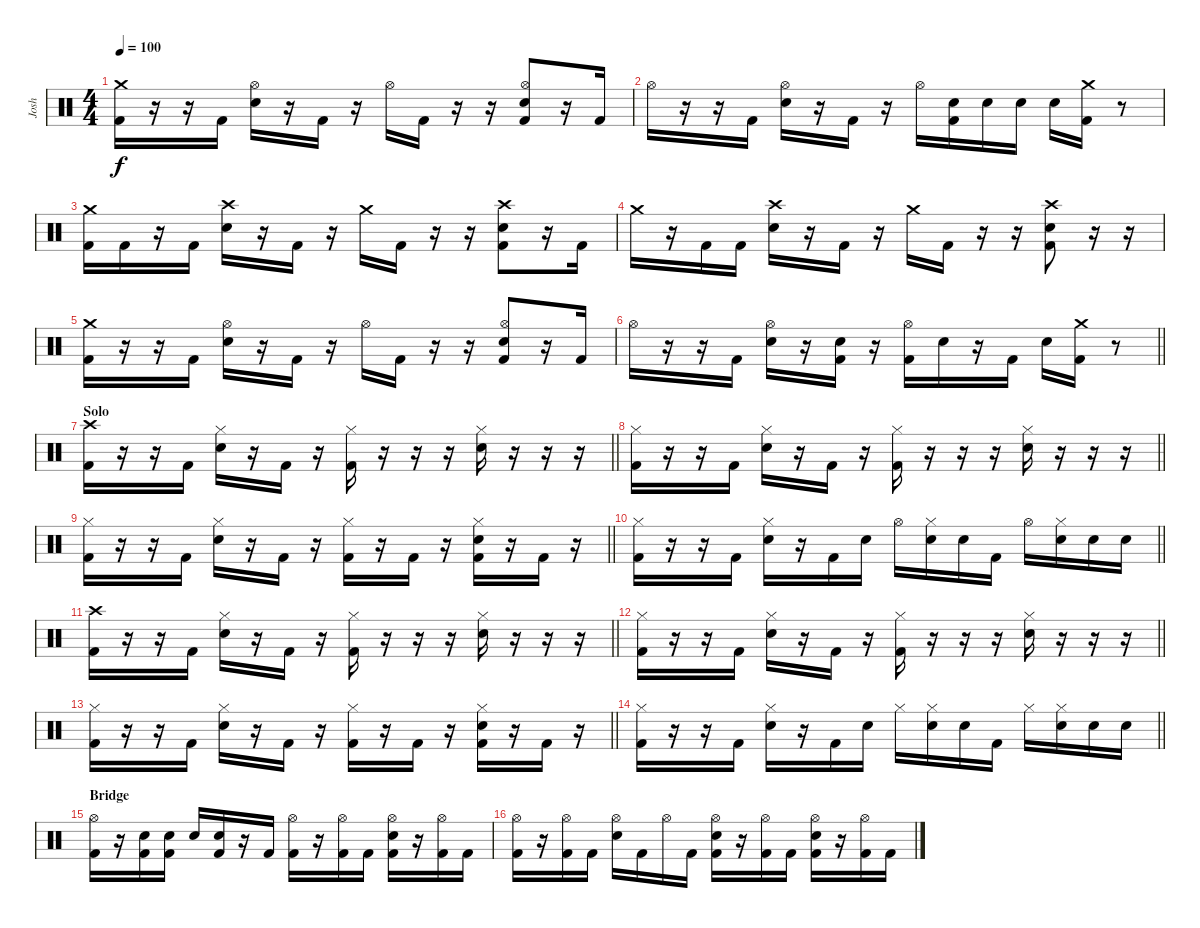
\track ("Josh" "Josh") {instrument percussion}
\staff {score}
\articulation defaults
\ts (4 4)
\tempo 100
\clef neutral
\ks c
("Crash medium (hit)" "Kick (hit) 2").16{dy f} r.16 r.16 "Kick (hit) 2".16 ("Hi-Hat (open)" "Snare (hit) 2").16 r.16 "Kick (hit) 2".16 r.16 "Hi-Hat (open)".16 "Kick (hit) 2".16 r.16 r.16 ("Hi-Hat (open)" "Snare (hit) 2" "Kick (hit) 2").8 r.16 "Kick (hit) 2".16 |
"Hi-Hat (open)".16 r.16 r.16 "Kick (hit) 2".16 ("Hi-Hat (open)" "Snare (hit) 2").16 r.16 "Kick (hit) 2".16 r.16 "Hi-Hat (open)".16 ("Snare (hit) 2" "Kick (hit) 2").16 "Snare (hit) 2".16 "Snare (hit) 2".16 "Snare (hit) 2".16 ("Crash medium (hit)" "Kick (hit) 2").16 r.8 |
("Crash medium (hit)" "Kick (hit) 2").16 "Kick (hit) 2".16 r.16 "Kick (hit) 2".16 ("Crash high (hit)" "Snare (hit) 2").16 r.16 "Kick (hit) 2".16 r.16 "Crash medium (hit)".16 "Kick (hit) 2".16 r.16 r.16 ("Crash high (hit)" "Snare (hit) 2" "Kick (hit) 2").8 r.16 "Kick (hit) 2".16 |
"Crash medium (hit)".16 r.16 "Kick (hit) 2".16 "Kick (hit) 2".16 ("Crash high (hit)" "Snare (hit) 2").16 r.16 "Kick (hit) 2".16 r.16 "Crash medium (hit)".16 "Kick (hit) 2".16 r.16 r.16 ("Crash high (hit)" "Snare (hit) 2" "Kick (hit) 2").8 r.16 r.16 |
("Crash medium (hit)" "Kick (hit) 2").16 r.16 r.16 "Kick (hit) 2".16 ("Hi-Hat (open)" "Snare (hit) 2").16 r.16 "Kick (hit) 2".16 r.16 "Hi-Hat (open)".16 "Kick (hit) 2".16 r.16 r.16 ("Hi-Hat (open)" "Snare (hit) 2" "Kick (hit) 2").8 r.16 "Kick (hit) 2".16 |
\barLineRight lightlight "Hi-Hat (open)".16
r.16 r.16 "Kick (hit) 2".16 ("Hi-Hat (open)" "Snare (hit) 2").16 r.16 ("Snare (hit) 2" "Kick (hit) 2").16 r.16 ("Hi-Hat (open)" "Kick (hit) 2").16 "Snare (hit) 2".16 r.16 "Kick (hit) 2".16 "Snare (hit) 2".16 ("Crash medium (hit)" "Kick (hit) 2").16 r.8 |
\section ("" "Solo")
\barLineRight lightlight
("Crash high (hit)" "Kick (hit) 2").16 r.16 r.16 "Kick (hit) 2".16 ("Hi-Hat (closed)" "Snare (hit) 2").16 r.16 "Kick (hit) 2".16 r.16 ("Hi-Hat (closed)" "Kick (hit) 2").16 r.16 r.16 r.16 ("Hi-Hat (closed)" "Snare (hit) 2").16 r.16 r.16 r.16 |
\barLineRight lightlight
("Hi-Hat (closed)" "Kick (hit) 2").16 r.16 r.16 "Kick (hit) 2".16 ("Hi-Hat (closed)" "Snare (hit) 2").16 r.16 "Kick (hit) 2".16 r.16 ("Hi-Hat (closed)" "Kick (hit) 2").16 r.16 r.16 r.16 ("Hi-Hat (closed)" "Snare (hit) 2").16 r.16 r.16 r.16 |
\barLineRight lightlight
("Hi-Hat (closed)" "Kick (hit) 2").16 r.16 r.16 "Kick (hit) 2".16 ("Hi-Hat (closed)" "Snare (hit) 2").16 r.16 "Kick (hit) 2".16 r.16 ("Hi-Hat (closed)" "Kick (hit) 2").16 r.16 "Kick (hit) 2".16 r.16 ("Hi-Hat (closed)" "Snare (hit) 2" "Kick (hit) 2").16 r.16 "Kick (hit) 2".16 r.16 |
\barLineRight lightlight
("Hi-Hat (closed)" "Kick (hit) 2").16 r.16 r.16 "Kick (hit) 2".16 ("Hi-Hat (closed)" "Snare (hit) 2").16 r.16 "Kick (hit) 2".16 "Snare (hit) 2".16 "Hi-Hat (open)".16 ("Hi-Hat (closed)" "Snare (hit) 2").16 "Snare (hit) 2".16 "Kick (hit) 2".16 "Hi-Hat (open)".16 ("Hi-Hat (closed)" "Snare (hit) 2").16 "Snare (hit) 2".16 "Snare (hit) 2".16 |
\barLineRight lightlight
("Crash high (hit)" "Kick (hit) 2").16 r.16 r.16 "Kick (hit) 2".16 ("Hi-Hat (closed)" "Snare (hit) 2").16 r.16 "Kick (hit) 2".16 r.16 ("Hi-Hat (closed)" "Kick (hit) 2").16 r.16 r.16 r.16 ("Hi-Hat (closed)" "Snare (hit) 2").16 r.16 r.16 r.16 |
\barLineRight lightlight
("Hi-Hat (closed)" "Kick (hit) 2").16 r.16 r.16 "Kick (hit) 2".16 ("Hi-Hat (closed)" "Snare (hit) 2").16 r.16 "Kick (hit) 2".16 r.16 ("Hi-Hat (closed)" "Kick (hit) 2").16 r.16 r.16 r.16 ("Hi-Hat (closed)" "Snare (hit) 2").16 r.16 r.16 r.16 |
\barLineRight lightlight
("Hi-Hat (closed)" "Kick (hit) 2").16 r.16 r.16 "Kick (hit) 2".16 ("Hi-Hat (closed)" "Snare (hit) 2").16 r.16 "Kick (hit) 2".16 r.16 ("Hi-Hat (closed)" "Kick (hit) 2").16 r.16 "Kick (hit) 2".16 r.16 ("Hi-Hat (closed)" "Snare (hit) 2" "Kick (hit) 2").16 r.16 "Kick (hit) 2".16 r.16 |
\barLineRight lightlight
("Hi-Hat (closed)" "Kick (hit) 2").16 r.16 r.16 "Kick (hit) 2".16 ("Hi-Hat (closed)" "Snare (hit) 2").16 r.16 "Kick (hit) 2".16 "Snare (hit) 2".16 "Hi-Hat (closed)".16 ("Hi-Hat (closed)" "Snare (hit) 2").16 "Snare (hit) 2".16 "Kick (hit) 2".16 "Hi-Hat (closed)".16 ("Hi-Hat (closed)" "Snare (hit) 2").16 "Snare (hit) 2".16 "Snare (hit) 2".16 |
\section ("" "Bridge")
("Hi-Hat (open)" "Kick (hit) 2").16 r.16 ("Snare (hit) 2" "Kick (hit) 2").16 ("Snare (hit) 2" "Kick (hit) 2").16 "Snare (hit) 2".16 ("Snare (hit) 2" "Kick (hit) 2").16 r.16 "Kick (hit) 2".16 ("Hi-Hat (open)" "Kick (hit) 2").16 r.16 ("Hi-Hat (open)" "Kick (hit) 2").16 "Kick (hit) 2".16 ("Hi-Hat (open)" "Snare (hit) 2" "Kick (hit) 2").16 r.16 ("Hi-Hat (open)" "Kick (hit) 2").16 "Kick (hit) 2".16 |
("Hi-Hat (open)" "Kick (hit) 2").16 r.16 ("Hi-Hat (open)" "Kick (hit) 2").16 "Kick (hit) 2".16 ("Hi-Hat (open)" "Snare (hit) 2").16 "Kick (hit) 2".16 "Hi-Hat (open)".16 "Kick (hit) 2".16 ("Hi-Hat (open)" "Snare (hit) 2" "Kick (hit) 2").16 r.16 ("Hi-Hat (open)" "Kick (hit) 2").16 "Kick (hit) 2".16 ("Hi-Hat (open)" "Snare (hit) 2" "Kick (hit) 2").16 r.16 ("Hi-Hat (open)" "Kick (hit) 2").16 "Kick (hit) 2".16
